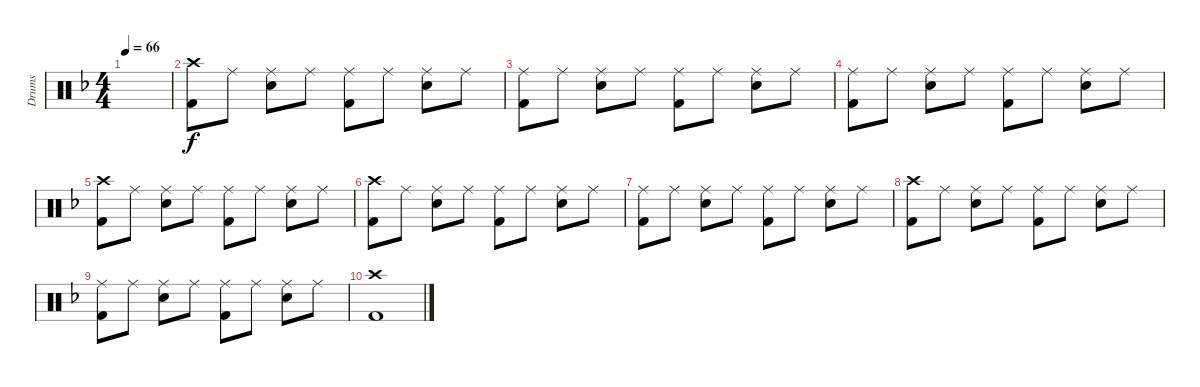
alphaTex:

\track ("Drums" "Drums") {instrument percussion}
\staff {score}
\articulation defaults
\ts (4 4)
\tempo 66
\clef neutral
\ks dminor
|
("Crash high (hit)" "Kick (hit) 2").8 "Ride (middle)".8 ("Ride (middle)" "Electric Snare (hit)").8 "Ride (middle)".8 ("Ride (middle)" "Kick (hit) 2").8 "Ride (middle)".8 ("Ride (middle)" "Electric Snare (hit)").8 "Ride (middle)".8 |
("Ride (middle)" "Kick (hit) 2").8 "Ride (middle)".8 ("Ride (middle)" "Electric Snare (hit)").8 "Ride (middle)".8 ("Ride (middle)" "Kick (hit) 2").8 "Ride (middle)".8 ("Ride (middle)" "Electric Snare (hit)").8 "Ride (middle)".8 |
("Ride (middle)" "Kick (hit) 2").8 "Ride (middle)".8 ("Ride (middle)" "Electric Snare (hit)").8 "Ride (middle)".8 ("Ride (middle)" "Kick (hit) 2").8 "Ride (middle)".8 ("Ride (middle)" "Electric Snare (hit)").8 "Ride (middle)".8 |
("Crash high (hit)" "Kick (hit) 2").8 "Ride (middle)".8 ("Ride (middle)" "Electric Snare (hit)").8 "Ride (middle)".8 ("Ride (middle)" "Kick (hit) 2").8 "Ride (middle)".8 ("Ride (middle)" "Electric Snare (hit)").8 "Ride (middle)".8 |
("Crash high (hit)" "Kick (hit) 2").8 "Ride (middle)".8 ("Ride (middle)" "Electric Snare (hit)").8 "Ride (middle)".8 ("Ride (middle)" "Kick (hit) 2").8 "Ride (middle)".8 ("Ride (middle)" "Electric Snare (hit)").8 "Ride (middle)".8 |
("Ride (middle)" "Kick (hit) 2").8 "Ride (middle)".8 ("Ride (middle)" "Electric Snare (hit)").8 "Ride (middle)".8 ("Ride (middle)" "Kick (hit) 2").8 "Ride (middle)".8 ("Ride (middle)" "Electric Snare (hit)").8 "Ride (middle)".8 |
("Crash high (hit)" "Kick (hit) 2").8 "Ride (middle)".8 ("Ride (middle)" "Electric Snare (hit)").8 "Ride (middle)".8 ("Ride (middle)" "Kick (hit) 2").8 "Ride (middle)".8 ("Ride (middle)" "Electric Snare (hit)").8 "Ride (middle)".8 |
("Ride (middle)" "Kick (hit) 2").8 "Ride (middle)".8 ("Ride (middle)" "Electric Snare (hit)").8 "Ride (middle)".8 ("Ride (middle)" "Kick (hit) 2").8 "Ride (middle)".8 ("Ride (middle)" "Electric Snare (hit)").8 "Ride (middle)".8 |
("Crash high (hit)" "Kick (hit) 2").1
